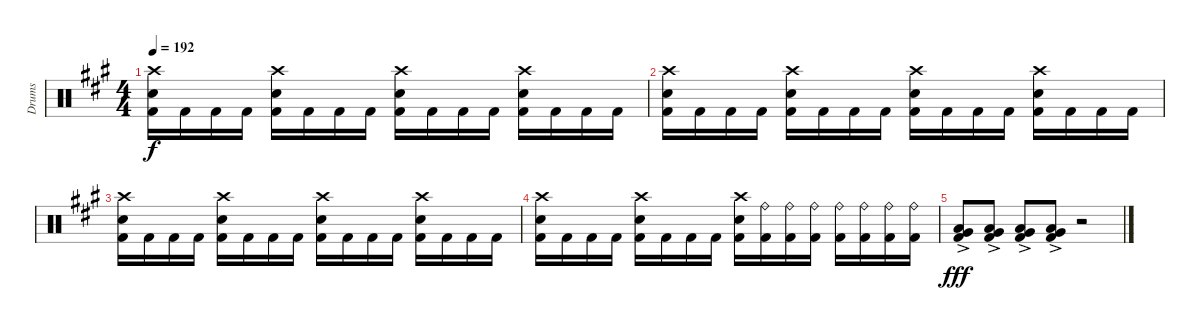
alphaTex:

\track ("Drums" "Drums") {instrument percussion}
\staff {score}
\articulation defaults
\ts (4 4)
\tempo 192
\clef neutral
\ks f#minor
("Crash high (hit)" "Snare (hit) 2" "Kick (hit) 2").16{dy f} "Kick (hit) 2".16 "Kick (hit) 2".16 "Kick (hit) 2".16 ("Crash high (hit)" "Snare (hit) 2" "Kick (hit) 2").16 "Kick (hit) 2".16 "Kick (hit) 2".16 "Kick (hit) 2".16 ("Crash high (hit)" "Snare (hit) 2" "Kick (hit) 2").16 "Kick (hit) 2".16 "Kick (hit) 2".16 "Kick (hit) 2".16 ("Crash high (hit)" "Snare (hit) 2" "Kick (hit) 2").16 "Kick (hit) 2".16 "Kick (hit) 2".16 "Kick (hit) 2".16 |
("Crash high (hit)" "Snare (hit) 2" "Kick (hit) 2").16 "Kick (hit) 2".16 "Kick (hit) 2".16 "Kick (hit) 2".16 ("Crash high (hit)" "Snare (hit) 2" "Kick (hit) 2").16 "Kick (hit) 2".16 "Kick (hit) 2".16 "Kick (hit) 2".16 ("Crash high (hit)" "Snare (hit) 2" "Kick (hit) 2").16 "Kick (hit) 2".16 "Kick (hit) 2".16 "Kick (hit) 2".16 ("Crash high (hit)" "Snare (hit) 2" "Kick (hit) 2").16 "Kick (hit) 2".16 "Kick (hit) 2".16 "Kick (hit) 2".16 |
("Crash high (hit)" "Snare (hit) 2" "Kick (hit) 2").16 "Kick (hit) 2".16 "Kick (hit) 2".16 "Kick (hit) 2".16 ("Crash high (hit)" "Snare (hit) 2" "Kick (hit) 2").16 "Kick (hit) 2".16 "Kick (hit) 2".16 "Kick (hit) 2".16 ("Crash high (hit)" "Snare (hit) 2" "Kick (hit) 2").16 "Kick (hit) 2".16 "Kick (hit) 2".16 "Kick (hit) 2".16 ("Crash high (hit)" "Snare (hit) 2" "Kick (hit) 2").16 "Kick (hit) 2".16 "Kick (hit) 2".16 "Kick (hit) 2".16 |
("Crash high (hit)" "Snare (hit) 2" "Kick (hit) 2").16 "Kick (hit) 2".16 "Kick (hit) 2".16 "Kick (hit) 2".16 ("Crash high (hit)" "Snare (hit) 2" "Kick (hit) 2").16 "Kick (hit) 2".16 "Kick (hit) 2".16 "Kick (hit) 2".16 ("Crash high (hit)" "Snare (hit) 2" "Kick (hit) 2").16 ("Ride (bell)" "Kick (hit) 2").16 ("Ride (bell)" "Kick (hit) 2").16 ("Ride (bell)" "Kick (hit) 2").16 ("Ride (bell)" "Kick (hit) 2").16 ("Ride (bell)" "Kick (hit) 2").16 ("Ride (bell)" "Kick (hit) 2").16 ("Ride (bell)" "Kick (hit) 2").16 |
("Low Tom (hit)"{ac} "Very Low Tom (hit)"{ac} "Kick (hit) 2").8{dy fff} ("Low Tom (hit)"{ac} "Very Low Tom (hit)"{ac} "Kick (hit) 2").8 ("Low Tom (hit)"{ac} "Very Low Tom (hit)"{ac} "Kick (hit) 2").8 ("Low Tom (hit)"{ac} "Very Low Tom (hit)"{ac} "Kick (hit) 2").8 r.2
